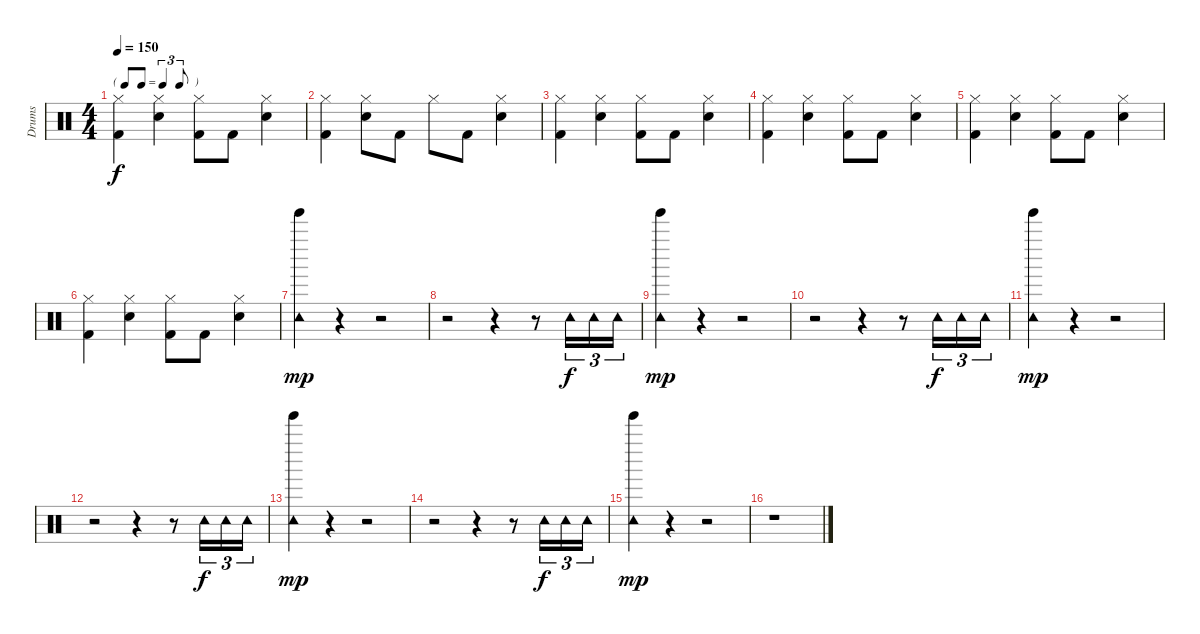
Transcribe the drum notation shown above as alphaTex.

\track ("Drums" "Drums") {instrument percussion}
\staff {score}
\articulation defaults
\ts (4 4)
\tf triplet8th
\tempo 150
\clef neutral
\ks c
("Hi-Hat (closed)" "Kick (hit) 2").4{dy f} ("Hi-Hat (closed)" "Snare (hit) 2").4 ("Hi-Hat (closed)" "Kick (hit) 2").8 "Kick (hit) 2".8 ("Hi-Hat (closed)" "Snare (hit) 2").4 |
("Hi-Hat (closed)" "Kick (hit) 2").4 ("Hi-Hat (closed)" "Snare (hit) 2").8 "Kick (hit) 2".8 "Hi-Hat (closed)".8 "Kick (hit) 2".8 ("Hi-Hat (closed)" "Snare (hit) 2").4 |
("Hi-Hat (closed)" "Kick (hit) 2").4 ("Hi-Hat (closed)" "Snare (hit) 2").4 ("Hi-Hat (closed)" "Kick (hit) 2").8 "Kick (hit) 2".8 ("Hi-Hat (closed)" "Snare (hit) 2").4 |
("Hi-Hat (closed)" "Kick (hit) 2").4 ("Hi-Hat (closed)" "Snare (hit) 2").4 ("Hi-Hat (closed)" "Kick (hit) 2").8 "Kick (hit) 2".8 ("Hi-Hat (closed)" "Snare (hit) 2").4 |
("Hi-Hat (closed)" "Kick (hit) 2").4 ("Hi-Hat (closed)" "Snare (hit) 2").4 ("Hi-Hat (closed)" "Kick (hit) 2").8 "Kick (hit) 2".8 ("Hi-Hat (closed)" "Snare (hit) 2").4 |
("Hi-Hat (closed)" "Kick (hit) 2").4 ("Hi-Hat (closed)" "Snare (hit) 2").4 ("Hi-Hat (closed)" "Kick (hit) 2").8 "Kick (hit) 2".8 ("Hi-Hat (closed)" "Snare (hit) 2").4 |
("Tinkle Bell (hit)" "Tambourine (hit)").4{dy mp} r.4 r.2 |
r.2 r.4 r.8 "Tambourine (hit)".16{tu (3 2) dy f} "Tambourine (hit)".16{tu (3 2)} "Tambourine (hit)".16{tu (3 2)} |
("Tambourine (hit)" "Tinkle Bell (hit)").4{dy mp} r.4 r.2 |
r.2 r.4 r.8 "Tambourine (hit)".16{tu (3 2) dy f} "Tambourine (hit)".16{tu (3 2)} "Tambourine (hit)".16{tu (3 2)} |
("Tambourine (hit)" "Tinkle Bell (hit)").4{dy mp} r.4 r.2 |
r.2 r.4 r.8 "Tambourine (hit)".16{tu (3 2) dy f} "Tambourine (hit)".16{tu (3 2)} "Tambourine (hit)".16{tu (3 2)} |
("Tambourine (hit)" "Tinkle Bell (hit)").4{dy mp} r.4 r.2 |
r.2 r.4 r.8 "Tambourine (hit)".16{tu (3 2) dy f} "Tambourine (hit)".16{tu (3 2)} "Tambourine (hit)".16{tu (3 2)} |
("Tambourine (hit)" "Tinkle Bell (hit)").4{dy mp} r.4 r.2 |
r.1
